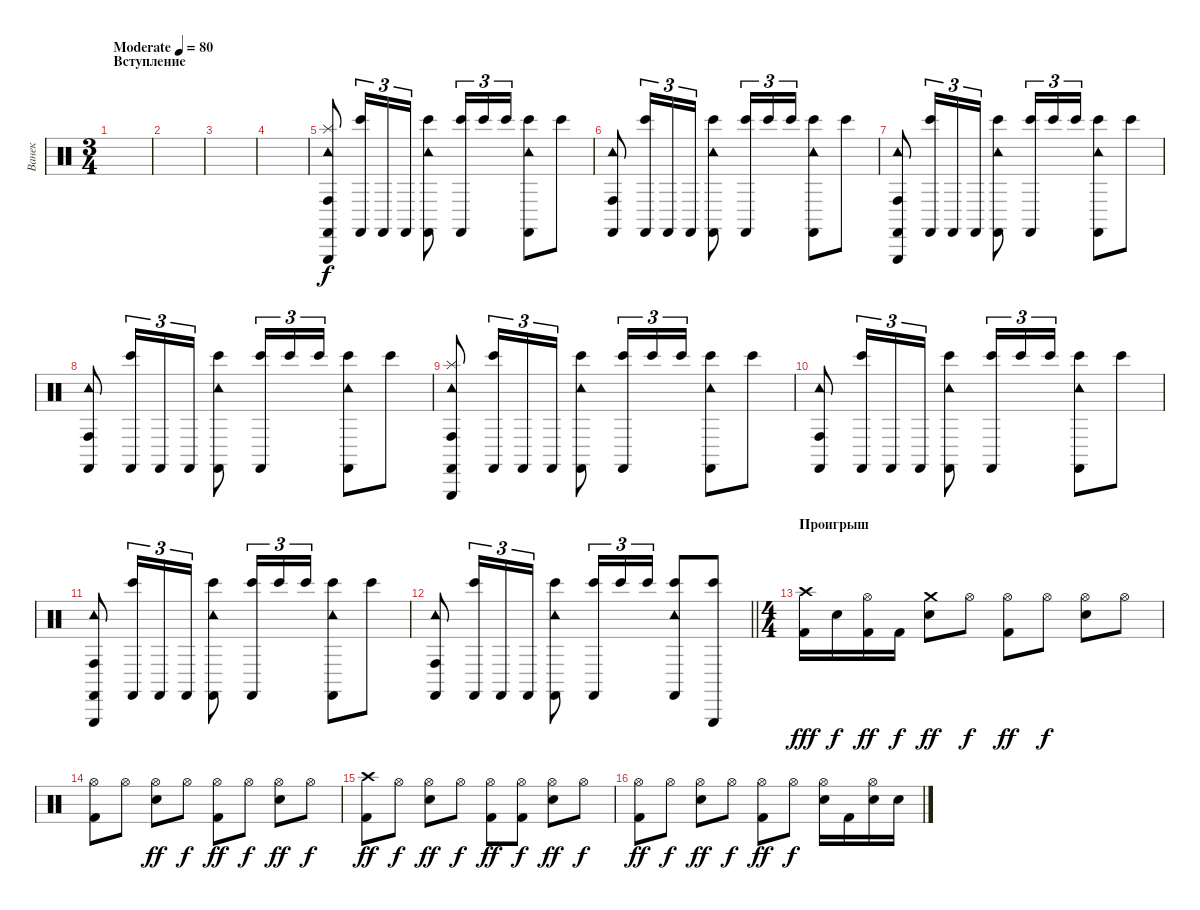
\track ("Ванек" "Ванек") {instrument percussion}
\staff {score}
\articulation defaults
\ts (3 4)
\section ("" "Вступление")
\tempo (80 "Moderate")
\clef neutral
\ks c
|
|
|
|
("Tambourine (hit)" "Castanets (hit)" "Conga high (hit)" "Splash (hit)" "Triangle (hit)").8 ("Castanets (hit)" "Bongo High (hit)").16{tu (3 2)} "Castanets (hit)".16{tu (3 2)} "Castanets (hit)".16{tu (3 2)} ("Tambourine (hit)" "Castanets (hit)" "Bongo High (hit)").8 ("Castanets (hit)" "Bongo High (hit)").16{tu (3 2)} "Bongo High (hit)".16{tu (3 2)} "Bongo High (hit)".16{tu (3 2)} ("Tambourine (hit)" "Castanets (hit)" "Bongo High (hit)").8 "Bongo High (hit)".8 |
("Tambourine (hit)" "Castanets (hit)" "Conga high (hit)").8 ("Castanets (hit)" "Bongo High (hit)").16{tu (3 2)} "Castanets (hit)".16{tu (3 2)} "Castanets (hit)".16{tu (3 2)} ("Tambourine (hit)" "Castanets (hit)" "Bongo High (hit)").8 ("Castanets (hit)" "Bongo High (hit)").16{tu (3 2)} "Bongo High (hit)".16{tu (3 2)} "Bongo High (hit)".16{tu (3 2)} ("Tambourine (hit)" "Castanets (hit)" "Bongo High (hit)").8 "Bongo High (hit)".8 |
("Tambourine (hit)" "Castanets (hit)" "Conga high (hit)" "Triangle (hit)").8 ("Castanets (hit)" "Bongo High (hit)").16{tu (3 2)} "Castanets (hit)".16{tu (3 2)} "Castanets (hit)".16{tu (3 2)} ("Tambourine (hit)" "Castanets (hit)" "Bongo High (hit)").8 ("Castanets (hit)" "Bongo High (hit)").16{tu (3 2)} "Bongo High (hit)".16{tu (3 2)} "Bongo High (hit)".16{tu (3 2)} ("Tambourine (hit)" "Castanets (hit)" "Bongo High (hit)").8 "Bongo High (hit)".8 |
("Tambourine (hit)" "Castanets (hit)" "Conga high (hit)").8 ("Castanets (hit)" "Bongo High (hit)").16{tu (3 2)} "Castanets (hit)".16{tu (3 2)} "Castanets (hit)".16{tu (3 2)} ("Tambourine (hit)" "Castanets (hit)" "Bongo High (hit)").8 ("Castanets (hit)" "Bongo High (hit)").16{tu (3 2)} "Bongo High (hit)".16{tu (3 2)} "Bongo High (hit)".16{tu (3 2)} ("Tambourine (hit)" "Castanets (hit)" "Bongo High (hit)").8 "Bongo High (hit)".8 |
("Tambourine (hit)" "Castanets (hit)" "Conga high (hit)" "Splash (hit)" "Triangle (hit)").8 ("Castanets (hit)" "Bongo High (hit)").16{tu (3 2)} "Castanets (hit)".16{tu (3 2)} "Castanets (hit)".16{tu (3 2)} ("Tambourine (hit)" "Castanets (hit)" "Bongo High (hit)").8 ("Castanets (hit)" "Bongo High (hit)").16{tu (3 2)} "Bongo High (hit)".16{tu (3 2)} "Bongo High (hit)".16{tu (3 2)} ("Tambourine (hit)" "Castanets (hit)" "Bongo High (hit)").8 "Bongo High (hit)".8 |
("Tambourine (hit)" "Castanets (hit)" "Conga high (hit)").8 ("Castanets (hit)" "Bongo High (hit)").16{tu (3 2)} "Castanets (hit)".16{tu (3 2)} "Castanets (hit)".16{tu (3 2)} ("Tambourine (hit)" "Castanets (hit)" "Bongo High (hit)").8 ("Castanets (hit)" "Bongo High (hit)").16{tu (3 2)} "Bongo High (hit)".16{tu (3 2)} "Bongo High (hit)".16{tu (3 2)} ("Tambourine (hit)" "Castanets (hit)" "Bongo High (hit)").8 "Bongo High (hit)".8 |
("Tambourine (hit)" "Castanets (hit)" "Conga high (hit)" "Triangle (hit)").8 ("Castanets (hit)" "Bongo High (hit)").16{tu (3 2)} "Castanets (hit)".16{tu (3 2)} "Castanets (hit)".16{tu (3 2)} ("Tambourine (hit)" "Castanets (hit)" "Bongo High (hit)").8 ("Castanets (hit)" "Bongo High (hit)").16{tu (3 2)} "Bongo High (hit)".16{tu (3 2)} "Bongo High (hit)".16{tu (3 2)} ("Tambourine (hit)" "Castanets (hit)" "Bongo High (hit)").8 "Bongo High (hit)".8 |
\barLineRight lightlight
("Tambourine (hit)" "Castanets (hit)" "Conga high (hit)").8 ("Castanets (hit)" "Bongo High (hit)").16{tu (3 2)} "Castanets (hit)".16{tu (3 2)} "Castanets (hit)".16{tu (3 2)} ("Tambourine (hit)" "Castanets (hit)" "Bongo High (hit)").8 ("Castanets (hit)" "Bongo High (hit)").16{tu (3 2)} "Bongo High (hit)".16{tu (3 2)} "Bongo High (hit)".16{tu (3 2)} ("Tambourine (hit)" "Castanets (hit)" "Bongo High (hit)").8 ("Bongo High (hit)" "Triangle (hit)").8 |
\ts (4 4)
\section ("" "Проигрыш")
("Crash high (hit)" "Kick (hit) 2").16{dy fff} "Electric Snare (hit)".16{dy f} ("Hi-Hat (open)" "Kick (hit) 2").16{dy ff} "Kick (hit) 2".16{dy f} ("Crash medium (hit)" "Electric Snare (hit)").8{dy ff} "Hi-Hat (open)".8{dy f} ("Hi-Hat (open)" "Kick (hit) 2").8{dy ff} "Hi-Hat (open)".8{dy f} ("Hi-Hat (open)" "Electric Snare (hit)").8 "Hi-Hat (open)".8 |
("Hi-Hat (open)" "Kick (hit) 2").8 "Hi-Hat (open)".8 ("Hi-Hat (open)" "Electric Snare (hit)").8{dy ff} "Hi-Hat (open)".8{dy f} ("Hi-Hat (open)" "Kick (hit) 2").8{dy ff} "Hi-Hat (open)".8{dy f} ("Hi-Hat (open)" "Electric Snare (hit)").8{dy ff} "Hi-Hat (open)".8{dy f} |
("Crash high (hit)" "Kick (hit) 2").8{dy ff} "Hi-Hat (open)".8{dy f} ("Hi-Hat (open)" "Electric Snare (hit)").8{dy ff} "Hi-Hat (open)".8{dy f} ("Hi-Hat (open)" "Kick (hit) 2").8{dy ff} ("Hi-Hat (open)" "Kick (hit) 2").8{dy f} ("Hi-Hat (open)" "Electric Snare (hit)").8{dy ff} "Hi-Hat (open)".8{dy f} |
("Hi-Hat (open)" "Kick (hit) 2").8{dy ff} "Hi-Hat (open)".8{dy f} ("Hi-Hat (open)" "Electric Snare (hit)").8{dy ff} "Hi-Hat (open)".8{dy f} ("Hi-Hat (open)" "Kick (hit) 2").8{dy ff} "Hi-Hat (open)".8{dy f} ("Hi-Hat (open)" "Electric Snare (hit)").16 "Kick (hit) 2".16 ("Hi-Hat (open)" "Electric Snare (hit)").16 "Electric Snare (hit)".16
